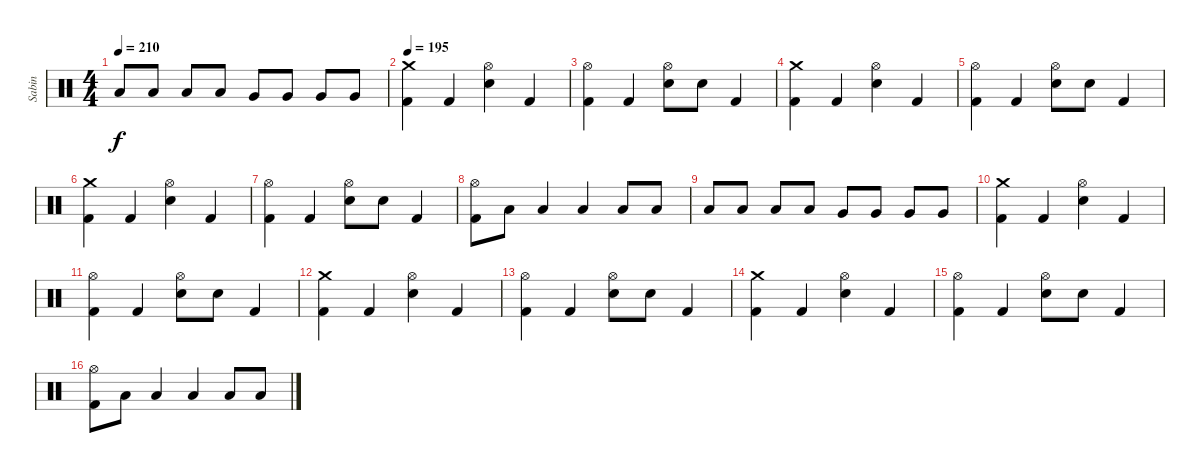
\track ("Sabin" "Sabin") {instrument percussion}
\staff {score}
\articulation defaults
\ts (4 4)
\tempo 210
\clef neutral
\ks c "Low Tom (hit)".8{dy f} "Low Tom (hit)".8 "Low Tom (hit)".8 "Low Tom (hit)".8 "Very Low Tom (hit)".8 "Very Low Tom (hit)".8 "Very Low Tom (hit)".8 "Very Low Tom (hit)".8
|
\tempo 195
("Crash medium (hit)" "Kick (hit) 2").4 "Kick (hit) 2".4 ("Electric Snare (hit)" "Hi-Hat (open)").4 "Kick (hit) 2".4 |
("Hi-Hat (open)" "Kick (hit) 2").4 "Kick (hit) 2".4 ("Electric Snare (hit)" "Hi-Hat (open)").8 "Electric Snare (hit)".8 "Kick (hit) 2".4 |
("Crash medium (hit)" "Kick (hit) 2").4 "Kick (hit) 2".4 ("Electric Snare (hit)" "Hi-Hat (open)").4 "Kick (hit) 2".4 |
("Hi-Hat (open)" "Kick (hit) 2").4 "Kick (hit) 2".4 ("Electric Snare (hit)" "Hi-Hat (open)").8 "Electric Snare (hit)".8 "Kick (hit) 2".4 |
("Crash medium (hit)" "Kick (hit) 2").4 "Kick (hit) 2".4 ("Electric Snare (hit)" "Hi-Hat (open)").4 "Kick (hit) 2".4 |
("Hi-Hat (open)" "Kick (hit) 2").4 "Kick (hit) 2".4 ("Electric Snare (hit)" "Hi-Hat (open)").8 "Electric Snare (hit)".8 "Kick (hit) 2".4 |
("Hi-Hat (open)" "Kick (hit) 2").8 "Low Tom (hit)".8 "Low Tom (hit)".4 "Low Tom (hit)".4 "Low Tom (hit)".8 "Low Tom (hit)".8 |
"Low Tom (hit)".8 "Low Tom (hit)".8 "Low Tom (hit)".8 "Low Tom (hit)".8 "Very Low Tom (hit)".8 "Very Low Tom (hit)".8 "Very Low Tom (hit)".8 "Very Low Tom (hit)".8 |
("Crash medium (hit)" "Kick (hit) 2").4 "Kick (hit) 2".4 ("Electric Snare (hit)" "Hi-Hat (open)").4 "Kick (hit) 2".4 |
("Hi-Hat (open)" "Kick (hit) 2").4 "Kick (hit) 2".4 ("Electric Snare (hit)" "Hi-Hat (open)").8 "Electric Snare (hit)".8 "Kick (hit) 2".4 |
("Crash medium (hit)" "Kick (hit) 2").4 "Kick (hit) 2".4 ("Electric Snare (hit)" "Hi-Hat (open)").4 "Kick (hit) 2".4 |
("Hi-Hat (open)" "Kick (hit) 2").4 "Kick (hit) 2".4 ("Electric Snare (hit)" "Hi-Hat (open)").8 "Electric Snare (hit)".8 "Kick (hit) 2".4 |
("Crash medium (hit)" "Kick (hit) 2").4 "Kick (hit) 2".4 ("Electric Snare (hit)" "Hi-Hat (open)").4 "Kick (hit) 2".4 |
("Hi-Hat (open)" "Kick (hit) 2").4 "Kick (hit) 2".4 ("Electric Snare (hit)" "Hi-Hat (open)").8 "Electric Snare (hit)".8 "Kick (hit) 2".4 |
("Hi-Hat (open)" "Kick (hit) 2").8 "Low Tom (hit)".8 "Low Tom (hit)".4 "Low Tom (hit)".4 "Low Tom (hit)".8 "Low Tom (hit)".8
